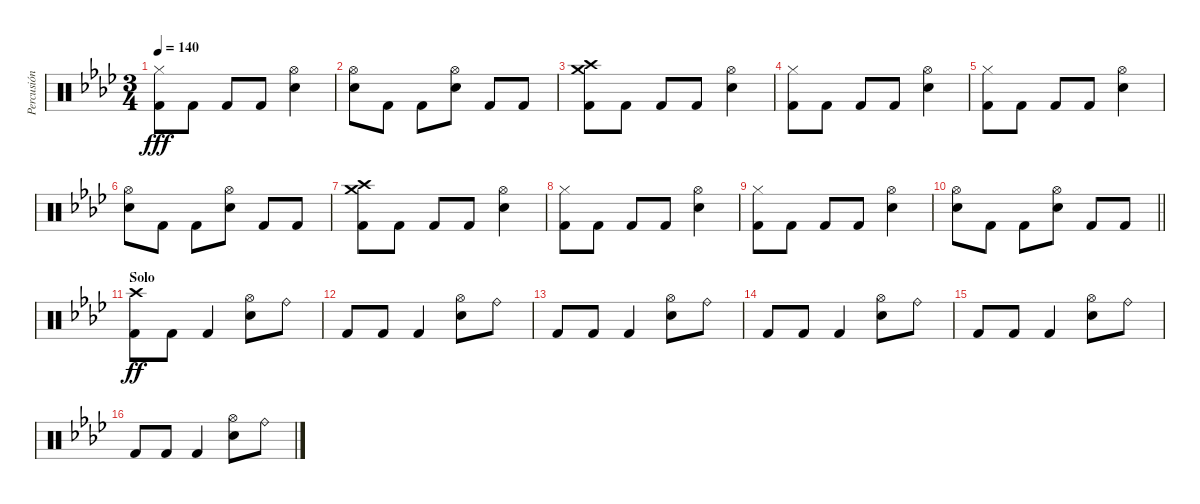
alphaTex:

\track ("Percusión" "Percusión") {instrument percussion}
\staff {score}
\articulation defaults
\ts (3 4)
\tempo 140
\clef neutral
\ks fminor
("Hi-Hat (closed)" "Kick (hit) 2").8{dy fff} "Kick (hit) 2".8 "Kick (hit) 2".8 "Kick (hit) 2".8 ("Hi-Hat (open)" "Snare (hit) 2").4 |
("Hi-Hat (open)" "Snare (hit) 2").8 "Kick (hit) 2".8 "Kick (hit) 2".8 ("Hi-Hat (open)" "Snare (hit) 2").8 "Kick (hit) 2".8 "Kick (hit) 2".8 |
("Crash high (hit)" "Crash medium (hit)" "Kick (hit) 2").8 "Kick (hit) 2".8 "Kick (hit) 2".8 "Kick (hit) 2".8 ("Hi-Hat (open)" "Snare (hit) 2").4 |
("Hi-Hat (closed)" "Kick (hit) 2").8 "Kick (hit) 2".8 "Kick (hit) 2".8 "Kick (hit) 2".8 ("Hi-Hat (open)" "Snare (hit) 2").4 |
("Hi-Hat (closed)" "Kick (hit) 2").8 "Kick (hit) 2".8 "Kick (hit) 2".8 "Kick (hit) 2".8 ("Hi-Hat (open)" "Snare (hit) 2").4 |
("Hi-Hat (open)" "Snare (hit) 2").8 "Kick (hit) 2".8 "Kick (hit) 2".8 ("Hi-Hat (open)" "Snare (hit) 2").8 "Kick (hit) 2".8 "Kick (hit) 2".8 |
("Crash high (hit)" "Crash medium (hit)" "Kick (hit) 2").8 "Kick (hit) 2".8 "Kick (hit) 2".8 "Kick (hit) 2".8 ("Hi-Hat (open)" "Snare (hit) 2").4 |
("Hi-Hat (closed)" "Kick (hit) 2").8 "Kick (hit) 2".8 "Kick (hit) 2".8 "Kick (hit) 2".8 ("Hi-Hat (open)" "Snare (hit) 2").4 |
("Hi-Hat (closed)" "Kick (hit) 2").8 "Kick (hit) 2".8 "Kick (hit) 2".8 "Kick (hit) 2".8 ("Hi-Hat (open)" "Snare (hit) 2").4 |
\barLineRight lightlight
("Hi-Hat (open)" "Snare (hit) 2").8 "Kick (hit) 2".8 "Kick (hit) 2".8 ("Hi-Hat (open)" "Snare (hit) 2").8 "Kick (hit) 2".8 "Kick (hit) 2".8 |
\section ("" "Solo")
("Crash high (hit)" "Kick (hit) 2").8{dy ff} "Kick (hit) 2".8 "Kick (hit) 2".4 ("Hi-Hat (open)" "Snare (hit) 2").8 "Ride (bell)".8 |
"Kick (hit) 2".8 "Kick (hit) 2".8 "Kick (hit) 2".4 ("Hi-Hat (open)" "Snare (hit) 2").8 "Ride (bell)".8 |
"Kick (hit) 2".8 "Kick (hit) 2".8 "Kick (hit) 2".4 ("Hi-Hat (open)" "Snare (hit) 2").8 "Ride (bell)".8 |
"Kick (hit) 2".8 "Kick (hit) 2".8 "Kick (hit) 2".4 ("Hi-Hat (open)" "Snare (hit) 2").8 "Ride (bell)".8 |
"Kick (hit) 2".8 "Kick (hit) 2".8 "Kick (hit) 2".4 ("Hi-Hat (open)" "Snare (hit) 2").8 "Ride (bell)".8 |
"Kick (hit) 2".8 "Kick (hit) 2".8 "Kick (hit) 2".4 ("Hi-Hat (open)" "Snare (hit) 2").8 "Ride (bell)".8
